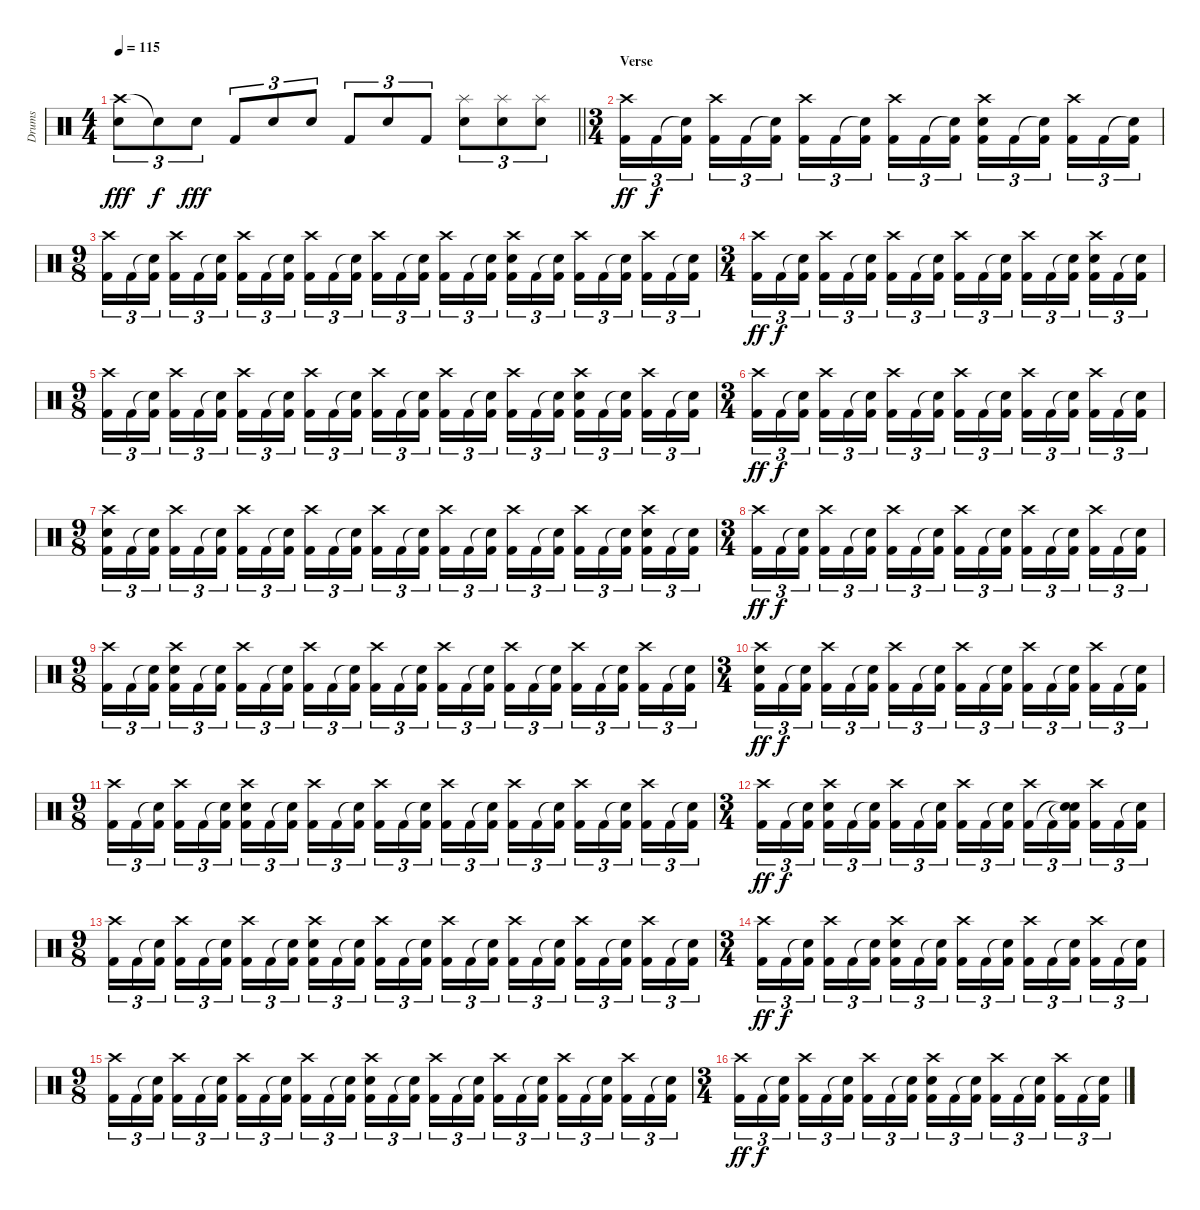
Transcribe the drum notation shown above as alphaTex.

\track ("Drums" "Drums") {instrument percussion}
\staff {score}
\articulation defaults
\ts (4 4)
\tempo 115
\clef neutral
\barLineRight lightlight
\ks c
("Crash high (hit)" "Electric Snare (hit)").8{tu (3 2) dy fff} "Snare (hit)"{t}.8{tu (3 2) dy f} "Electric Snare (hit)".8{tu (3 2) dy fff} "Kick (hit) 2".8{tu (3 2)} "Electric Snare (hit)".8{tu (3 2)} "Electric Snare (hit)".8{tu (3 2)} "Kick (hit) 2".8{tu (3 2)} "Electric Snare (hit)".8{tu (3 2)} "Kick (hit) 2".8{tu (3 2)} ("Splash (hit)" "Electric Snare (hit)").8{tu (3 2)} ("Splash (hit)" "Electric Snare (hit)").8{tu (3 2)} ("Splash (hit)" "Electric Snare (hit)").8{tu (3 2)} |
\ts (3 4)
\section ("" "Verse")
("Crash high (hit)" "Kick (hit) 2").16{tu (3 2) dy ff} "Kick (hit) 2".16{tu (3 2) dy f} ("Snare (hit)"{t} "Kick (hit) 2").16{tu (3 2) beam splitsecondary} ("Crash high (hit)" "Kick (hit) 2").16{tu (3 2)} "Kick (hit) 2".16{tu (3 2)} ("Snare (hit)"{t} "Kick (hit) 2").16{tu (3 2)} ("Crash high (hit)" "Kick (hit) 2").16{tu (3 2)} "Kick (hit) 2".16{tu (3 2)} ("Snare (hit)"{t} "Kick (hit) 2").16{tu (3 2) beam splitsecondary} ("Crash high (hit)" "Kick (hit) 2").16{tu (3 2)} "Kick (hit) 2".16{tu (3 2)} ("Snare (hit)"{t} "Kick (hit) 2").16{tu (3 2)} ("Crash high (hit)" "Electric Snare (hit)" "Kick (hit) 2").16{tu (3 2)} "Kick (hit) 2".16{tu (3 2)} ("Snare (hit)"{t} "Kick (hit) 2").16{tu (3 2) beam splitsecondary} ("Crash high (hit)" "Kick (hit) 2").16{tu (3 2)} "Kick (hit) 2".16{tu (3 2)} ("Snare (hit)"{t} "Kick (hit) 2").16{tu (3 2)} |
\ts (9 8)
("Crash high (hit)" "Kick (hit) 2").16{tu (3 2)} "Kick (hit) 2".16{tu (3 2)} ("Snare (hit)"{t} "Kick (hit) 2").16{tu (3 2) beam splitsecondary} ("Crash high (hit)" "Kick (hit) 2").16{tu (3 2)} "Kick (hit) 2".16{tu (3 2)} ("Snare (hit)"{t} "Kick (hit) 2").16{tu (3 2) beam splitsecondary} ("Crash high (hit)" "Kick (hit) 2").16{tu (3 2)} "Kick (hit) 2".16{tu (3 2)} ("Snare (hit)"{t} "Kick (hit) 2").16{tu (3 2)} ("Crash high (hit)" "Kick (hit) 2").16{tu (3 2)} "Kick (hit) 2".16{tu (3 2)} ("Snare (hit)"{t} "Kick (hit) 2").16{tu (3 2) beam splitsecondary} ("Crash high (hit)" "Kick (hit) 2").16{tu (3 2)} "Kick (hit) 2".16{tu (3 2)} ("Snare (hit)"{t} "Kick (hit) 2").16{tu (3 2) beam splitsecondary} ("Crash high (hit)" "Kick (hit) 2").16{tu (3 2)} "Kick (hit) 2".16{tu (3 2)} ("Snare (hit)"{t} "Kick (hit) 2").16{tu (3 2)} ("Crash high (hit)" "Electric Snare (hit)" "Kick (hit) 2").16{tu (3 2)} "Kick (hit) 2".16{tu (3 2)} ("Snare (hit)"{t} "Kick (hit) 2").16{tu (3 2) beam splitsecondary} ("Crash high (hit)" "Kick (hit) 2").16{tu (3 2)} "Kick (hit) 2".16{tu (3 2)} ("Snare (hit)"{t} "Kick (hit) 2").16{tu (3 2) beam splitsecondary} ("Crash high (hit)" "Kick (hit) 2").16{tu (3 2)} "Kick (hit) 2".16{tu (3 2)} ("Snare (hit)"{t} "Kick (hit) 2").16{tu (3 2)} |
\ts (3 4)
("Crash high (hit)" "Kick (hit) 2").16{tu (3 2) dy ff} "Kick (hit) 2".16{tu (3 2) dy f} ("Snare (hit)"{t} "Kick (hit) 2").16{tu (3 2) beam splitsecondary} ("Crash high (hit)" "Kick (hit) 2").16{tu (3 2)} "Kick (hit) 2".16{tu (3 2)} ("Snare (hit)"{t} "Kick (hit) 2").16{tu (3 2)} ("Crash high (hit)" "Kick (hit) 2").16{tu (3 2)} "Kick (hit) 2".16{tu (3 2)} ("Snare (hit)"{t} "Kick (hit) 2").16{tu (3 2) beam splitsecondary} ("Crash high (hit)" "Kick (hit) 2").16{tu (3 2)} "Kick (hit) 2".16{tu (3 2)} ("Snare (hit)"{t} "Kick (hit) 2").16{tu (3 2)} ("Crash high (hit)" "Kick (hit) 2").16{tu (3 2)} "Kick (hit) 2".16{tu (3 2)} ("Snare (hit)"{t} "Kick (hit) 2").16{tu (3 2) beam splitsecondary} ("Crash high (hit)" "Electric Snare (hit)" "Kick (hit) 2").16{tu (3 2)} "Kick (hit) 2".16{tu (3 2)} ("Snare (hit)"{t} "Kick (hit) 2").16{tu (3 2)} |
\ts (9 8)
("Crash high (hit)" "Kick (hit) 2").16{tu (3 2)} "Kick (hit) 2".16{tu (3 2)} ("Snare (hit)"{t} "Kick (hit) 2").16{tu (3 2) beam splitsecondary} ("Crash high (hit)" "Kick (hit) 2").16{tu (3 2)} "Kick (hit) 2".16{tu (3 2)} ("Snare (hit)"{t} "Kick (hit) 2").16{tu (3 2) beam splitsecondary} ("Crash high (hit)" "Kick (hit) 2").16{tu (3 2)} "Kick (hit) 2".16{tu (3 2)} ("Snare (hit)"{t} "Kick (hit) 2").16{tu (3 2)} ("Crash high (hit)" "Kick (hit) 2").16{tu (3 2)} "Kick (hit) 2".16{tu (3 2)} ("Snare (hit)"{t} "Kick (hit) 2").16{tu (3 2) beam splitsecondary} ("Crash high (hit)" "Kick (hit) 2").16{tu (3 2)} "Kick (hit) 2".16{tu (3 2)} ("Snare (hit)"{t} "Kick (hit) 2").16{tu (3 2) beam splitsecondary} ("Crash high (hit)" "Kick (hit) 2").16{tu (3 2)} "Kick (hit) 2".16{tu (3 2)} ("Snare (hit)"{t} "Kick (hit) 2").16{tu (3 2)} ("Crash high (hit)" "Kick (hit) 2").16{tu (3 2)} "Kick (hit) 2".16{tu (3 2)} ("Snare (hit)"{t} "Kick (hit) 2").16{tu (3 2) beam splitsecondary} ("Crash high (hit)" "Electric Snare (hit)" "Kick (hit) 2").16{tu (3 2)} "Kick (hit) 2".16{tu (3 2)} ("Snare (hit)"{t} "Kick (hit) 2").16{tu (3 2) beam splitsecondary} ("Crash high (hit)" "Kick (hit) 2").16{tu (3 2)} "Kick (hit) 2".16{tu (3 2)} ("Snare (hit)"{t} "Kick (hit) 2").16{tu (3 2)} |
\ts (3 4)
("Crash high (hit)" "Kick (hit) 2").16{tu (3 2) dy ff} "Kick (hit) 2".16{tu (3 2) dy f} ("Snare (hit)"{t} "Kick (hit) 2").16{tu (3 2) beam splitsecondary} ("Crash high (hit)" "Kick (hit) 2").16{tu (3 2)} "Kick (hit) 2".16{tu (3 2)} ("Snare (hit)"{t} "Kick (hit) 2").16{tu (3 2)} ("Crash high (hit)" "Kick (hit) 2").16{tu (3 2)} "Kick (hit) 2".16{tu (3 2)} ("Snare (hit)"{t} "Kick (hit) 2").16{tu (3 2) beam splitsecondary} ("Crash high (hit)" "Kick (hit) 2").16{tu (3 2)} "Kick (hit) 2".16{tu (3 2)} ("Snare (hit)"{t} "Kick (hit) 2").16{tu (3 2)} ("Crash high (hit)" "Kick (hit) 2").16{tu (3 2)} "Kick (hit) 2".16{tu (3 2)} ("Snare (hit)"{t} "Kick (hit) 2").16{tu (3 2) beam splitsecondary} ("Crash high (hit)" "Kick (hit) 2").16{tu (3 2)} "Kick (hit) 2".16{tu (3 2)} ("Snare (hit)"{t} "Kick (hit) 2").16{tu (3 2)} |
\ts (9 8)
("Crash high (hit)" "Electric Snare (hit)" "Kick (hit) 2").16{tu (3 2)} "Kick (hit) 2".16{tu (3 2)} ("Snare (hit)"{t} "Kick (hit) 2").16{tu (3 2) beam splitsecondary} ("Crash high (hit)" "Kick (hit) 2").16{tu (3 2)} "Kick (hit) 2".16{tu (3 2)} ("Snare (hit)"{t} "Kick (hit) 2").16{tu (3 2) beam splitsecondary} ("Crash high (hit)" "Kick (hit) 2").16{tu (3 2)} "Kick (hit) 2".16{tu (3 2)} ("Snare (hit)"{t} "Kick (hit) 2").16{tu (3 2)} ("Crash high (hit)" "Kick (hit) 2").16{tu (3 2)} "Kick (hit) 2".16{tu (3 2)} ("Snare (hit)"{t} "Kick (hit) 2").16{tu (3 2) beam splitsecondary} ("Crash high (hit)" "Kick (hit) 2").16{tu (3 2)} "Kick (hit) 2".16{tu (3 2)} ("Snare (hit)"{t} "Kick (hit) 2").16{tu (3 2) beam splitsecondary} ("Crash high (hit)" "Kick (hit) 2").16{tu (3 2)} "Kick (hit) 2".16{tu (3 2)} ("Snare (hit)"{t} "Kick (hit) 2").16{tu (3 2)} ("Crash high (hit)" "Kick (hit) 2").16{tu (3 2)} "Kick (hit) 2".16{tu (3 2)} ("Snare (hit)"{t} "Kick (hit) 2").16{tu (3 2) beam splitsecondary} ("Crash high (hit)" "Kick (hit) 2").16{tu (3 2)} "Kick (hit) 2".16{tu (3 2)} ("Snare (hit)"{t} "Kick (hit) 2").16{tu (3 2) beam splitsecondary} ("Crash high (hit)" "Electric Snare (hit)" "Kick (hit) 2").16{tu (3 2)} "Kick (hit) 2".16{tu (3 2)} ("Snare (hit)"{t} "Kick (hit) 2").16{tu (3 2)} |
\ts (3 4)
("Crash high (hit)" "Kick (hit) 2").16{tu (3 2) dy ff} "Kick (hit) 2".16{tu (3 2) dy f} ("Snare (hit)"{t} "Kick (hit) 2").16{tu (3 2) beam splitsecondary} ("Crash high (hit)" "Kick (hit) 2").16{tu (3 2)} "Kick (hit) 2".16{tu (3 2)} ("Snare (hit)"{t} "Kick (hit) 2").16{tu (3 2)} ("Crash high (hit)" "Kick (hit) 2").16{tu (3 2)} "Kick (hit) 2".16{tu (3 2)} ("Snare (hit)"{t} "Kick (hit) 2").16{tu (3 2) beam splitsecondary} ("Crash high (hit)" "Kick (hit) 2").16{tu (3 2)} "Kick (hit) 2".16{tu (3 2)} ("Snare (hit)"{t} "Kick (hit) 2").16{tu (3 2)} ("Crash high (hit)" "Kick (hit) 2").16{tu (3 2)} "Kick (hit) 2".16{tu (3 2)} ("Snare (hit)"{t} "Kick (hit) 2").16{tu (3 2) beam splitsecondary} ("Crash high (hit)" "Kick (hit) 2").16{tu (3 2)} "Kick (hit) 2".16{tu (3 2)} ("Snare (hit)"{t} "Kick (hit) 2").16{tu (3 2)} |
\ts (9 8)
("Crash high (hit)" "Kick (hit) 2").16{tu (3 2)} "Kick (hit) 2".16{tu (3 2)} ("Snare (hit)"{t} "Kick (hit) 2").16{tu (3 2) beam splitsecondary} ("Crash high (hit)" "Electric Snare (hit)" "Kick (hit) 2").16{tu (3 2)} "Kick (hit) 2".16{tu (3 2)} ("Snare (hit)"{t} "Kick (hit) 2").16{tu (3 2) beam splitsecondary} ("Crash high (hit)" "Kick (hit) 2").16{tu (3 2)} "Kick (hit) 2".16{tu (3 2)} ("Snare (hit)"{t} "Kick (hit) 2").16{tu (3 2)} ("Crash high (hit)" "Kick (hit) 2").16{tu (3 2)} "Kick (hit) 2".16{tu (3 2)} ("Snare (hit)"{t} "Kick (hit) 2").16{tu (3 2) beam splitsecondary} ("Crash high (hit)" "Kick (hit) 2").16{tu (3 2)} "Kick (hit) 2".16{tu (3 2)} ("Snare (hit)"{t} "Kick (hit) 2").16{tu (3 2) beam splitsecondary} ("Crash high (hit)" "Kick (hit) 2").16{tu (3 2)} "Kick (hit) 2".16{tu (3 2)} ("Snare (hit)"{t} "Kick (hit) 2").16{tu (3 2)} ("Crash high (hit)" "Kick (hit) 2").16{tu (3 2)} "Kick (hit) 2".16{tu (3 2)} ("Snare (hit)"{t} "Kick (hit) 2").16{tu (3 2) beam splitsecondary} ("Crash high (hit)" "Kick (hit) 2").16{tu (3 2)} "Kick (hit) 2".16{tu (3 2)} ("Snare (hit)"{t} "Kick (hit) 2").16{tu (3 2) beam splitsecondary} ("Crash high (hit)" "Kick (hit) 2").16{tu (3 2)} "Kick (hit) 2".16{tu (3 2)} ("Snare (hit)"{t} "Kick (hit) 2").16{tu (3 2)} |
\ts (3 4)
("Crash high (hit)" "Electric Snare (hit)" "Kick (hit) 2").16{tu (3 2) dy ff} "Kick (hit) 2".16{tu (3 2) dy f} ("Snare (hit)"{t} "Kick (hit) 2").16{tu (3 2) beam splitsecondary} ("Crash high (hit)" "Kick (hit) 2").16{tu (3 2)} "Kick (hit) 2".16{tu (3 2)} ("Snare (hit)"{t} "Kick (hit) 2").16{tu (3 2)} ("Crash high (hit)" "Kick (hit) 2").16{tu (3 2)} "Kick (hit) 2".16{tu (3 2)} ("Snare (hit)"{t} "Kick (hit) 2").16{tu (3 2) beam splitsecondary} ("Crash high (hit)" "Kick (hit) 2").16{tu (3 2)} "Kick (hit) 2".16{tu (3 2)} ("Snare (hit)"{t} "Kick (hit) 2").16{tu (3 2)} ("Crash high (hit)" "Kick (hit) 2").16{tu (3 2)} "Kick (hit) 2".16{tu (3 2)} ("Snare (hit)"{t} "Kick (hit) 2").16{tu (3 2) beam splitsecondary} ("Crash high (hit)" "Kick (hit) 2").16{tu (3 2)} "Kick (hit) 2".16{tu (3 2)} ("Snare (hit)"{t} "Kick (hit) 2").16{tu (3 2)} |
\ts (9 8)
("Crash high (hit)" "Kick (hit) 2").16{tu (3 2)} "Kick (hit) 2".16{tu (3 2)} ("Snare (hit)"{t} "Kick (hit) 2").16{tu (3 2) beam splitsecondary} ("Crash high (hit)" "Kick (hit) 2").16{tu (3 2)} "Kick (hit) 2".16{tu (3 2)} ("Snare (hit)"{t} "Kick (hit) 2").16{tu (3 2) beam splitsecondary} ("Crash high (hit)" "Electric Snare (hit)" "Kick (hit) 2").16{tu (3 2)} "Kick (hit) 2".16{tu (3 2)} ("Snare (hit)"{t} "Kick (hit) 2").16{tu (3 2)} ("Crash high (hit)" "Kick (hit) 2").16{tu (3 2)} "Kick (hit) 2".16{tu (3 2)} ("Snare (hit)"{t} "Kick (hit) 2").16{tu (3 2) beam splitsecondary} ("Crash high (hit)" "Kick (hit) 2").16{tu (3 2)} "Kick (hit) 2".16{tu (3 2)} ("Snare (hit)"{t} "Kick (hit) 2").16{tu (3 2) beam splitsecondary} ("Crash high (hit)" "Kick (hit) 2").16{tu (3 2)} "Kick (hit) 2".16{tu (3 2)} ("Snare (hit)"{t} "Kick (hit) 2").16{tu (3 2)} ("Crash high (hit)" "Kick (hit) 2").16{tu (3 2)} "Kick (hit) 2".16{tu (3 2)} ("Snare (hit)"{t} "Kick (hit) 2").16{tu (3 2) beam splitsecondary} ("Crash high (hit)" "Kick (hit) 2").16{tu (3 2)} "Kick (hit) 2".16{tu (3 2)} ("Snare (hit)"{t} "Kick (hit) 2").16{tu (3 2) beam splitsecondary} ("Crash high (hit)" "Kick (hit) 2").16{tu (3 2)} "Kick (hit) 2".16{tu (3 2)} ("Snare (hit)"{t} "Kick (hit) 2").16{tu (3 2)} |
\ts (3 4)
("Crash high (hit)" "Kick (hit) 2").16{tu (3 2) dy ff} "Kick (hit) 2".16{tu (3 2) dy f} ("Snare (hit)"{t} "Kick (hit) 2").16{tu (3 2) beam splitsecondary} ("Crash high (hit)" "Electric Snare (hit)" "Kick (hit) 2").16{tu (3 2)} "Kick (hit) 2".16{tu (3 2)} ("Snare (hit)"{t} "Kick (hit) 2").16{tu (3 2)} ("Crash high (hit)" "Kick (hit) 2").16{tu (3 2)} "Kick (hit) 2".16{tu (3 2)} ("Snare (hit)"{t} "Kick (hit) 2").16{tu (3 2) beam splitsecondary} ("Crash high (hit)" "Kick (hit) 2").16{tu (3 2)} "Kick (hit) 2".16{tu (3 2)} ("Snare (hit)"{t} "Kick (hit) 2").16{tu (3 2)} ("Crash high (hit)" "Kick (hit) 2").16{tu (3 2)} "Kick (hit) 2".16{tu (3 2)} ("Snare (hit)"{t} "Snare (hit)"{t} "Kick (hit) 2").16{tu (3 2) beam splitsecondary} ("Crash high (hit)" "Kick (hit) 2").16{tu (3 2)} "Kick (hit) 2".16{tu (3 2)} ("Snare (hit)"{t} "Kick (hit) 2").16{tu (3 2)} |
\ts (9 8)
("Crash high (hit)" "Kick (hit) 2").16{tu (3 2)} "Kick (hit) 2".16{tu (3 2)} ("Snare (hit)"{t} "Kick (hit) 2").16{tu (3 2) beam splitsecondary} ("Crash high (hit)" "Kick (hit) 2").16{tu (3 2)} "Kick (hit) 2".16{tu (3 2)} ("Snare (hit)"{t} "Kick (hit) 2").16{tu (3 2) beam splitsecondary} ("Crash high (hit)" "Kick (hit) 2").16{tu (3 2)} "Kick (hit) 2".16{tu (3 2)} ("Snare (hit)"{t} "Kick (hit) 2").16{tu (3 2)} ("Crash high (hit)" "Electric Snare (hit)" "Kick (hit) 2").16{tu (3 2)} "Kick (hit) 2".16{tu (3 2)} ("Snare (hit)"{t} "Kick (hit) 2").16{tu (3 2) beam splitsecondary} ("Crash high (hit)" "Kick (hit) 2").16{tu (3 2)} "Kick (hit) 2".16{tu (3 2)} ("Snare (hit)"{t} "Kick (hit) 2").16{tu (3 2) beam splitsecondary} ("Crash high (hit)" "Kick (hit) 2").16{tu (3 2)} "Kick (hit) 2".16{tu (3 2)} ("Snare (hit)"{t} "Kick (hit) 2").16{tu (3 2)} ("Crash high (hit)" "Kick (hit) 2").16{tu (3 2)} "Kick (hit) 2".16{tu (3 2)} ("Snare (hit)"{t} "Kick (hit) 2").16{tu (3 2) beam splitsecondary} ("Crash high (hit)" "Kick (hit) 2").16{tu (3 2)} "Kick (hit) 2".16{tu (3 2)} ("Snare (hit)"{t} "Kick (hit) 2").16{tu (3 2) beam splitsecondary} ("Crash high (hit)" "Kick (hit) 2").16{tu (3 2)} "Kick (hit) 2".16{tu (3 2)} ("Snare (hit)"{t} "Kick (hit) 2").16{tu (3 2)} |
\ts (3 4)
("Crash high (hit)" "Kick (hit) 2").16{tu (3 2) dy ff} "Kick (hit) 2".16{tu (3 2) dy f} ("Snare (hit)"{t} "Kick (hit) 2").16{tu (3 2) beam splitsecondary} ("Crash high (hit)" "Kick (hit) 2").16{tu (3 2)} "Kick (hit) 2".16{tu (3 2)} ("Snare (hit)"{t} "Kick (hit) 2").16{tu (3 2)} ("Crash high (hit)" "Electric Snare (hit)" "Kick (hit) 2").16{tu (3 2)} "Kick (hit) 2".16{tu (3 2)} ("Snare (hit)"{t} "Kick (hit) 2").16{tu (3 2) beam splitsecondary} ("Crash high (hit)" "Kick (hit) 2").16{tu (3 2)} "Kick (hit) 2".16{tu (3 2)} ("Snare (hit)"{t} "Kick (hit) 2").16{tu (3 2)} ("Crash high (hit)" "Kick (hit) 2").16{tu (3 2)} "Kick (hit) 2".16{tu (3 2)} ("Snare (hit)"{t} "Kick (hit) 2").16{tu (3 2) beam splitsecondary} ("Crash high (hit)" "Kick (hit) 2").16{tu (3 2)} "Kick (hit) 2".16{tu (3 2)} ("Snare (hit)"{t} "Kick (hit) 2").16{tu (3 2)} |
\ts (9 8)
("Crash high (hit)" "Kick (hit) 2").16{tu (3 2)} "Kick (hit) 2".16{tu (3 2)} ("Snare (hit)"{t} "Kick (hit) 2").16{tu (3 2) beam splitsecondary} ("Crash high (hit)" "Kick (hit) 2").16{tu (3 2)} "Kick (hit) 2".16{tu (3 2)} ("Snare (hit)"{t} "Kick (hit) 2").16{tu (3 2) beam splitsecondary} ("Crash high (hit)" "Kick (hit) 2").16{tu (3 2)} "Kick (hit) 2".16{tu (3 2)} ("Snare (hit)"{t} "Kick (hit) 2").16{tu (3 2)} ("Crash high (hit)" "Kick (hit) 2").16{tu (3 2)} "Kick (hit) 2".16{tu (3 2)} ("Snare (hit)"{t} "Kick (hit) 2").16{tu (3 2) beam splitsecondary} ("Crash high (hit)" "Electric Snare (hit)" "Kick (hit) 2").16{tu (3 2)} "Kick (hit) 2".16{tu (3 2)} ("Snare (hit)"{t} "Kick (hit) 2").16{tu (3 2) beam splitsecondary} ("Crash high (hit)" "Kick (hit) 2").16{tu (3 2)} "Kick (hit) 2".16{tu (3 2)} ("Snare (hit)"{t} "Kick (hit) 2").16{tu (3 2)} ("Crash high (hit)" "Kick (hit) 2").16{tu (3 2)} "Kick (hit) 2".16{tu (3 2)} ("Snare (hit)"{t} "Kick (hit) 2").16{tu (3 2) beam splitsecondary} ("Crash high (hit)" "Kick (hit) 2").16{tu (3 2)} "Kick (hit) 2".16{tu (3 2)} ("Snare (hit)"{t} "Kick (hit) 2").16{tu (3 2) beam splitsecondary} ("Crash high (hit)" "Kick (hit) 2").16{tu (3 2)} "Kick (hit) 2".16{tu (3 2)} ("Snare (hit)"{t} "Kick (hit) 2").16{tu (3 2)} |
\ts (3 4)
("Crash high (hit)" "Kick (hit) 2").16{tu (3 2) dy ff} "Kick (hit) 2".16{tu (3 2) dy f} ("Snare (hit)"{t} "Kick (hit) 2").16{tu (3 2) beam splitsecondary} ("Crash high (hit)" "Kick (hit) 2").16{tu (3 2)} "Kick (hit) 2".16{tu (3 2)} ("Snare (hit)"{t} "Kick (hit) 2").16{tu (3 2)} ("Crash high (hit)" "Kick (hit) 2").16{tu (3 2)} "Kick (hit) 2".16{tu (3 2)} ("Snare (hit)"{t} "Kick (hit) 2").16{tu (3 2) beam splitsecondary} ("Crash high (hit)" "Electric Snare (hit)" "Kick (hit) 2").16{tu (3 2)} "Kick (hit) 2".16{tu (3 2)} ("Snare (hit)"{t} "Kick (hit) 2").16{tu (3 2)} ("Crash high (hit)" "Kick (hit) 2").16{tu (3 2)} "Kick (hit) 2".16{tu (3 2)} ("Snare (hit)"{t} "Kick (hit) 2").16{tu (3 2) beam splitsecondary} ("Crash high (hit)" "Kick (hit) 2").16{tu (3 2)} "Kick (hit) 2".16{tu (3 2)} ("Snare (hit)"{t} "Kick (hit) 2").16{tu (3 2)}
